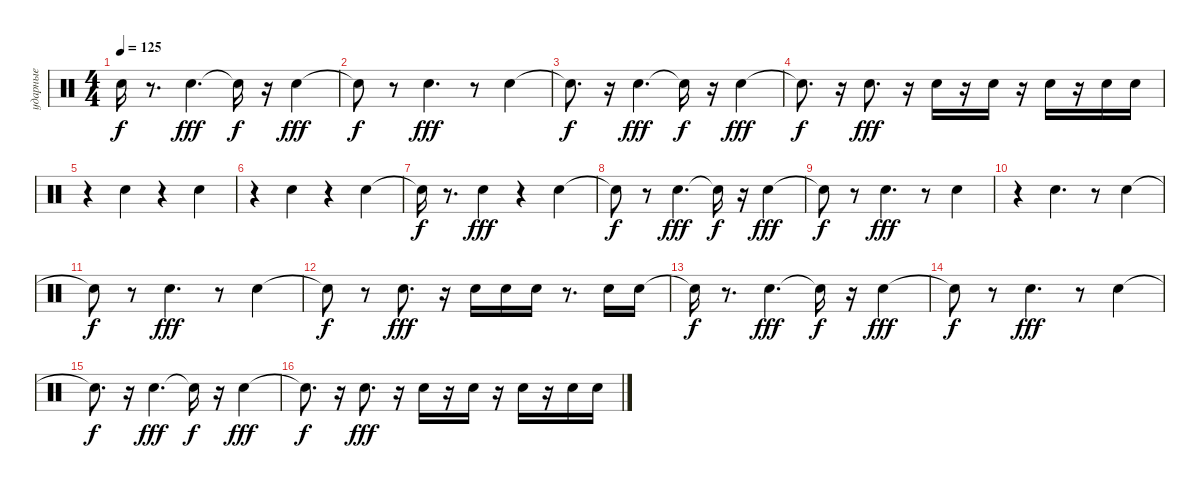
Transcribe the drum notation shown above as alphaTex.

\track ("ударные" "ударные") {instrument percussion}
\staff {score}
\articulation defaults
\ts (4 4)
\tempo 125
\clef neutral
\ks c "Snare (hit)"{t}.16{dy f}
r.8{d} "Snare (hit) 2".4{d dy fff} "Snare (hit)"{t}.16{dy f} r.16 "Snare (hit) 2".4{dy fff} |
"Snare (hit)"{t}.8{dy f} r.8 "Snare (hit) 2".4{d dy fff} r.8 "Snare (hit) 2".4 |
"Snare (hit)"{t}.8{d dy f} r.16 "Snare (hit) 2".4{d dy fff} "Snare (hit)"{t}.16{dy f} r.16 "Snare (hit) 2".4{dy fff} |
"Snare (hit)"{t}.8{d dy f} r.16 "Snare (hit) 2".8{d dy fff} r.16 "Snare (hit) 2".16 r.16 "Snare (hit) 2".16 r.16 "Snare (hit) 2".16 r.16 "Snare (hit) 2".16 "Snare (hit) 2".16 |
r.4 "Snare (hit) 2".4 r.4 "Snare (hit) 2".4 |
r.4 "Snare (hit) 2".4 r.4 "Snare (hit) 2".4 |
"Snare (hit)"{t}.16{dy f} r.8{d} "Snare (hit) 2".4{dy fff} r.4 "Snare (hit) 2".4 |
"Snare (hit)"{t}.8{dy f} r.8 "Snare (hit) 2".4{d dy fff} "Snare (hit)"{t}.16{dy f} r.16 "Snare (hit) 2".4{dy fff} |
"Snare (hit)"{t}.8{dy f} r.8 "Snare (hit) 2".4{d dy fff} r.8 "Snare (hit) 2".4 |
r.4 "Snare (hit) 2".4{d} r.8 "Snare (hit) 2".4 |
"Snare (hit)"{t}.8{dy f} r.8 "Snare (hit) 2".4{d dy fff} r.8 "Snare (hit) 2".4 |
"Snare (hit)"{t}.8{dy f} r.8 "Snare (hit) 2".8{d dy fff} r.16 "Snare (hit) 2".16 "Snare (hit) 2".16 "Snare (hit) 2".16 r.8{d} "Snare (hit) 2".16 "Snare (hit) 2".16 |
"Snare (hit)"{t}.16{dy f} r.8{d} "Snare (hit) 2".4{d dy fff} "Snare (hit)"{t}.16{dy f} r.16 "Snare (hit) 2".4{dy fff} |
"Snare (hit)"{t}.8{dy f} r.8 "Snare (hit) 2".4{d dy fff} r.8 "Snare (hit) 2".4 |
"Snare (hit)"{t}.8{d dy f} r.16 "Snare (hit) 2".4{d dy fff} "Snare (hit)"{t}.16{dy f} r.16 "Snare (hit) 2".4{dy fff} |
"Snare (hit)"{t}.8{d dy f} r.16 "Snare (hit) 2".8{d dy fff} r.16 "Snare (hit) 2".16 r.16 "Snare (hit) 2".16 r.16 "Snare (hit) 2".16 r.16 "Snare (hit) 2".16 "Snare (hit) 2".16
